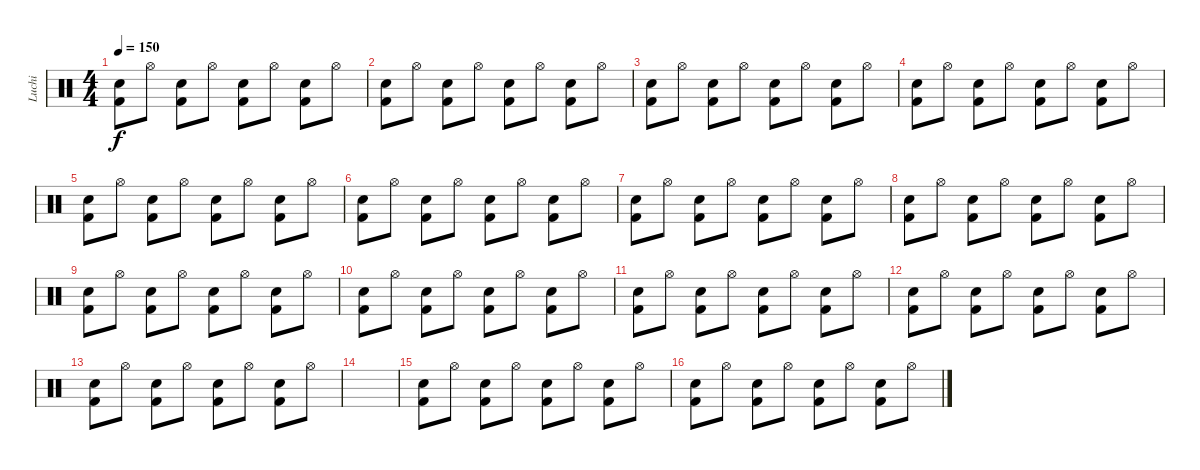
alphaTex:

\track ("Luchi" "Luchi") {instrument percussion}
\staff {score}
\articulation defaults
\ts (4 4)
\tempo 150
\clef neutral
\ks c
("Snare (hit) 2" "Kick (hit) 2").8{dy f} "Hi-Hat (open)".8 ("Snare (hit) 2" "Kick (hit) 2").8 "Hi-Hat (open)".8 ("Snare (hit) 2" "Kick (hit) 2").8 "Hi-Hat (open)".8 ("Snare (hit) 2" "Kick (hit) 2").8 "Hi-Hat (open)".8 |
("Snare (hit) 2" "Kick (hit) 2").8 "Hi-Hat (open)".8 ("Snare (hit) 2" "Kick (hit) 2").8 "Hi-Hat (open)".8 ("Snare (hit) 2" "Kick (hit) 2").8 "Hi-Hat (open)".8 ("Snare (hit) 2" "Kick (hit) 2").8 "Hi-Hat (open)".8 |
("Snare (hit) 2" "Kick (hit) 2").8 "Hi-Hat (open)".8 ("Snare (hit) 2" "Kick (hit) 2").8 "Hi-Hat (open)".8 ("Snare (hit) 2" "Kick (hit) 2").8 "Hi-Hat (open)".8 ("Snare (hit) 2" "Kick (hit) 2").8 "Hi-Hat (open)".8 |
("Snare (hit) 2" "Kick (hit) 2").8 "Hi-Hat (open)".8 ("Snare (hit) 2" "Kick (hit) 2").8 "Hi-Hat (open)".8 ("Snare (hit) 2" "Kick (hit) 2").8 "Hi-Hat (open)".8 ("Snare (hit) 2" "Kick (hit) 2").8 "Hi-Hat (open)".8 |
("Snare (hit) 2" "Kick (hit) 2").8 "Hi-Hat (open)".8 ("Snare (hit) 2" "Kick (hit) 2").8 "Hi-Hat (open)".8 ("Snare (hit) 2" "Kick (hit) 2").8 "Hi-Hat (open)".8 ("Snare (hit) 2" "Kick (hit) 2").8 "Hi-Hat (open)".8 |
("Snare (hit) 2" "Kick (hit) 2").8 "Hi-Hat (open)".8 ("Snare (hit) 2" "Kick (hit) 2").8 "Hi-Hat (open)".8 ("Snare (hit) 2" "Kick (hit) 2").8 "Hi-Hat (open)".8 ("Snare (hit) 2" "Kick (hit) 2").8 "Hi-Hat (open)".8 |
("Snare (hit) 2" "Kick (hit) 2").8 "Hi-Hat (open)".8 ("Snare (hit) 2" "Kick (hit) 2").8 "Hi-Hat (open)".8 ("Snare (hit) 2" "Kick (hit) 2").8 "Hi-Hat (open)".8 ("Snare (hit) 2" "Kick (hit) 2").8 "Hi-Hat (open)".8 |
("Snare (hit) 2" "Kick (hit) 2").8 "Hi-Hat (open)".8 ("Snare (hit) 2" "Kick (hit) 2").8 "Hi-Hat (open)".8 ("Snare (hit) 2" "Kick (hit) 2").8 "Hi-Hat (open)".8 ("Snare (hit) 2" "Kick (hit) 2").8 "Hi-Hat (open)".8 |
("Snare (hit) 2" "Kick (hit) 2").8 "Hi-Hat (open)".8 ("Snare (hit) 2" "Kick (hit) 2").8 "Hi-Hat (open)".8 ("Snare (hit) 2" "Kick (hit) 2").8 "Hi-Hat (open)".8 ("Snare (hit) 2" "Kick (hit) 2").8 "Hi-Hat (open)".8 |
("Snare (hit) 2" "Kick (hit) 2").8 "Hi-Hat (open)".8 ("Snare (hit) 2" "Kick (hit) 2").8 "Hi-Hat (open)".8 ("Snare (hit) 2" "Kick (hit) 2").8 "Hi-Hat (open)".8 ("Snare (hit) 2" "Kick (hit) 2").8 "Hi-Hat (open)".8 |
("Snare (hit) 2" "Kick (hit) 2").8 "Hi-Hat (open)".8 ("Snare (hit) 2" "Kick (hit) 2").8 "Hi-Hat (open)".8 ("Snare (hit) 2" "Kick (hit) 2").8 "Hi-Hat (open)".8 ("Snare (hit) 2" "Kick (hit) 2").8 "Hi-Hat (open)".8 |
("Snare (hit) 2" "Kick (hit) 2").8 "Hi-Hat (open)".8 ("Snare (hit) 2" "Kick (hit) 2").8 "Hi-Hat (open)".8 ("Snare (hit) 2" "Kick (hit) 2").8 "Hi-Hat (open)".8 ("Snare (hit) 2" "Kick (hit) 2").8 "Hi-Hat (open)".8 |
("Snare (hit) 2" "Kick (hit) 2").8 "Hi-Hat (open)".8 ("Snare (hit) 2" "Kick (hit) 2").8 "Hi-Hat (open)".8 ("Snare (hit) 2" "Kick (hit) 2").8 "Hi-Hat (open)".8 ("Snare (hit) 2" "Kick (hit) 2").8 "Hi-Hat (open)".8 |
|
("Snare (hit) 2" "Kick (hit) 2").8 "Hi-Hat (open)".8 ("Snare (hit) 2" "Kick (hit) 2").8 "Hi-Hat (open)".8 ("Snare (hit) 2" "Kick (hit) 2").8 "Hi-Hat (open)".8 ("Snare (hit) 2" "Kick (hit) 2").8 "Hi-Hat (open)".8 |
("Snare (hit) 2" "Kick (hit) 2").8 "Hi-Hat (open)".8 ("Snare (hit) 2" "Kick (hit) 2").8 "Hi-Hat (open)".8 ("Snare (hit) 2" "Kick (hit) 2").8 "Hi-Hat (open)".8 ("Snare (hit) 2" "Kick (hit) 2").8 "Hi-Hat (open)".8
